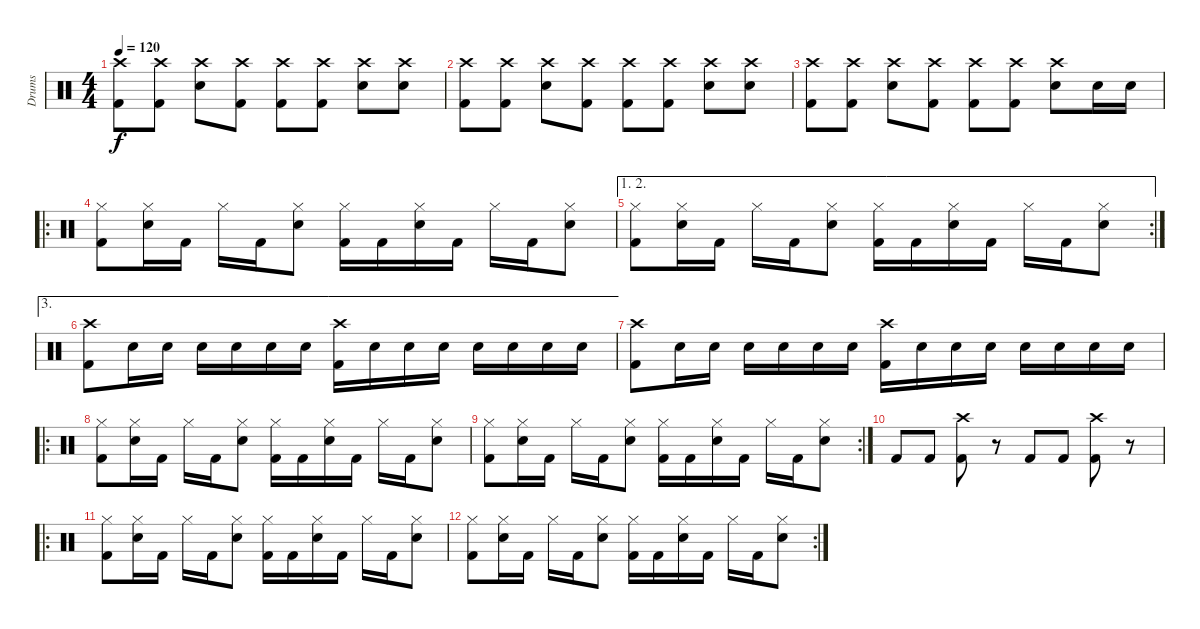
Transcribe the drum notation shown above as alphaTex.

\track ("Drums" "Drums") {instrument percussion}
\staff {score}
\articulation defaults
\ts (4 4)
\tempo 120
\clef neutral
\ks c
("Crash high (hit)" "Kick (hit) 2").8{dy f} ("Crash high (hit)" "Kick (hit) 2").8 ("Crash high (hit)" "Snare (hit) 2").8 ("Crash high (hit)" "Kick (hit) 2").8 ("Crash high (hit)" "Kick (hit) 2").8 ("Crash high (hit)" "Kick (hit) 2").8 ("Crash high (hit)" "Snare (hit) 2").8 ("Crash high (hit)" "Snare (hit) 2").8 |
("Crash high (hit)" "Kick (hit) 2").8 ("Crash high (hit)" "Kick (hit) 2").8 ("Crash high (hit)" "Snare (hit) 2").8 ("Crash high (hit)" "Kick (hit) 2").8 ("Crash high (hit)" "Kick (hit) 2").8 ("Crash high (hit)" "Kick (hit) 2").8 ("Crash high (hit)" "Snare (hit) 2").8 ("Crash high (hit)" "Snare (hit) 2").8 |
("Crash high (hit)" "Kick (hit) 2").8 ("Crash high (hit)" "Kick (hit) 2").8 ("Crash high (hit)" "Snare (hit) 2").8 ("Crash high (hit)" "Kick (hit) 2").8 ("Crash high (hit)" "Kick (hit) 2").8 ("Crash high (hit)" "Kick (hit) 2").8 ("Crash high (hit)" "Snare (hit) 2").8 "Snare (hit) 2".16 "Snare (hit) 2".16 |
\ro
("Hi-Hat (closed)" "Kick (hit) 2").8 ("Hi-Hat (closed)" "Snare (hit) 2").16 "Kick (hit) 2".16 "Hi-Hat (closed)".16 "Kick (hit) 2".16 ("Hi-Hat (closed)" "Snare (hit) 2").8 ("Hi-Hat (closed)" "Kick (hit) 2").16 "Kick (hit) 2".16 ("Hi-Hat (closed)" "Snare (hit) 2").16 "Kick (hit) 2".16 "Hi-Hat (closed)".16 "Kick (hit) 2".16 ("Hi-Hat (closed)" "Snare (hit) 2").8 |
\ae (1 2)
\rc 2
("Hi-Hat (closed)" "Kick (hit) 2").8 ("Hi-Hat (closed)" "Snare (hit) 2").16 "Kick (hit) 2".16 "Hi-Hat (closed)".16 "Kick (hit) 2".16 ("Hi-Hat (closed)" "Snare (hit) 2").8 ("Hi-Hat (closed)" "Kick (hit) 2").16 "Kick (hit) 2".16 ("Hi-Hat (closed)" "Snare (hit) 2").16 "Kick (hit) 2".16 "Hi-Hat (closed)".16 "Kick (hit) 2".16 ("Hi-Hat (closed)" "Snare (hit) 2").8 |
\ae 3
("Crash high (hit)" "Kick (hit) 2").8 "Snare (hit) 2".16 "Snare (hit) 2".16 "Snare (hit) 2".16 "Snare (hit) 2".16 "Snare (hit) 2".16 "Snare (hit) 2".16 ("Crash high (hit)" "Kick (hit) 2").16 "Snare (hit) 2".16 "Snare (hit) 2".16 "Snare (hit) 2".16 "Snare (hit) 2".16 "Snare (hit) 2".16 "Snare (hit) 2".16 "Snare (hit) 2".16 |
("Crash high (hit)" "Kick (hit) 2").8 "Snare (hit) 2".16 "Snare (hit) 2".16 "Snare (hit) 2".16 "Snare (hit) 2".16 "Snare (hit) 2".16 "Snare (hit) 2".16 ("Crash high (hit)" "Kick (hit) 2").16 "Snare (hit) 2".16 "Snare (hit) 2".16 "Snare (hit) 2".16 "Snare (hit) 2".16 "Snare (hit) 2".16 "Snare (hit) 2".16 "Snare (hit) 2".16 |
\ro
("Hi-Hat (closed)" "Kick (hit) 2").8 ("Hi-Hat (closed)" "Snare (hit) 2").16 "Kick (hit) 2".16 "Hi-Hat (closed)".16 "Kick (hit) 2".16 ("Hi-Hat (closed)" "Snare (hit) 2").8 ("Hi-Hat (closed)" "Kick (hit) 2").16 "Kick (hit) 2".16 ("Hi-Hat (closed)" "Snare (hit) 2").16 "Kick (hit) 2".16 "Hi-Hat (closed)".16 "Kick (hit) 2".16 ("Hi-Hat (closed)" "Snare (hit) 2").8 |
\rc 2
("Hi-Hat (closed)" "Kick (hit) 2").8 ("Hi-Hat (closed)" "Snare (hit) 2").16 "Kick (hit) 2".16 "Hi-Hat (closed)".16 "Kick (hit) 2".16 ("Hi-Hat (closed)" "Snare (hit) 2").8 ("Hi-Hat (closed)" "Kick (hit) 2").16 "Kick (hit) 2".16 ("Hi-Hat (closed)" "Snare (hit) 2").16 "Kick (hit) 2".16 "Hi-Hat (closed)".16 "Kick (hit) 2".16 ("Hi-Hat (closed)" "Snare (hit) 2").8 |
"Kick (hit) 2".8 "Kick (hit) 2".8 ("Crash high (hit)" "Kick (hit) 2").8 r.8 "Kick (hit) 2".8 "Kick (hit) 2".8 ("Crash high (hit)" "Kick (hit) 2").8 r.8 |
\ro
("Hi-Hat (closed)" "Kick (hit) 2").8 ("Hi-Hat (closed)" "Snare (hit) 2").16 "Kick (hit) 2".16 "Hi-Hat (closed)".16 "Kick (hit) 2".16 ("Hi-Hat (closed)" "Snare (hit) 2").8 ("Hi-Hat (closed)" "Kick (hit) 2").16 "Kick (hit) 2".16 ("Hi-Hat (closed)" "Snare (hit) 2").16 "Kick (hit) 2".16 "Hi-Hat (closed)".16 "Kick (hit) 2".16 ("Hi-Hat (closed)" "Snare (hit) 2").8 |
\rc 2
("Hi-Hat (closed)" "Kick (hit) 2").8 ("Hi-Hat (closed)" "Snare (hit) 2").16 "Kick (hit) 2".16 "Hi-Hat (closed)".16 "Kick (hit) 2".16 ("Hi-Hat (closed)" "Snare (hit) 2").8 ("Hi-Hat (closed)" "Kick (hit) 2").16 "Kick (hit) 2".16 ("Hi-Hat (closed)" "Snare (hit) 2").16 "Kick (hit) 2".16 "Hi-Hat (closed)".16 "Kick (hit) 2".16 ("Hi-Hat (closed)" "Snare (hit) 2").8
